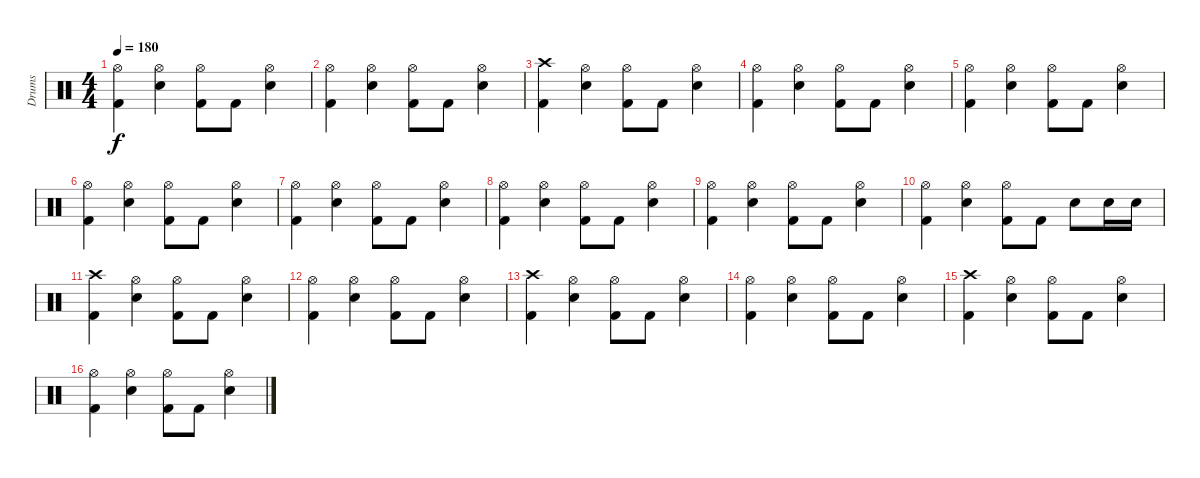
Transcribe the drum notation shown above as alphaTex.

\track ("Drums" "Drums") {instrument percussion}
\staff {score}
\articulation defaults
\ts (4 4)
\tempo 180
\clef neutral
\ks c
("Hi-Hat (open)" "Kick (hit) 2").4{dy f} ("Hi-Hat (open)" "Snare (hit) 2").4 ("Hi-Hat (open)" "Kick (hit) 2").8 "Kick (hit) 2".8 ("Hi-Hat (open)" "Snare (hit) 2").4 |
("Hi-Hat (open)" "Kick (hit) 2").4 ("Hi-Hat (open)" "Snare (hit) 2").4 ("Hi-Hat (open)" "Kick (hit) 2").8 "Kick (hit) 2".8 ("Hi-Hat (open)" "Snare (hit) 2").4 |
("Crash high (hit)" "Kick (hit) 2").4 ("Hi-Hat (open)" "Snare (hit) 2").4 ("Hi-Hat (open)" "Kick (hit) 2").8 "Kick (hit) 2".8 ("Hi-Hat (open)" "Snare (hit) 2").4 |
("Hi-Hat (open)" "Kick (hit) 2").4 ("Hi-Hat (open)" "Snare (hit) 2").4 ("Hi-Hat (open)" "Kick (hit) 2").8 "Kick (hit) 2".8 ("Hi-Hat (open)" "Snare (hit) 2").4 |
("Hi-Hat (open)" "Kick (hit) 2").4 ("Hi-Hat (open)" "Snare (hit) 2").4 ("Hi-Hat (open)" "Kick (hit) 2").8 "Kick (hit) 2".8 ("Hi-Hat (open)" "Snare (hit) 2").4 |
("Hi-Hat (open)" "Kick (hit) 2").4 ("Hi-Hat (open)" "Snare (hit) 2").4 ("Hi-Hat (open)" "Kick (hit) 2").8 "Kick (hit) 2".8 ("Hi-Hat (open)" "Snare (hit) 2").4 |
("Hi-Hat (open)" "Kick (hit) 2").4 ("Hi-Hat (open)" "Snare (hit) 2").4 ("Hi-Hat (open)" "Kick (hit) 2").8 "Kick (hit) 2".8 ("Hi-Hat (open)" "Snare (hit) 2").4 |
("Hi-Hat (open)" "Kick (hit) 2").4 ("Hi-Hat (open)" "Snare (hit) 2").4 ("Hi-Hat (open)" "Kick (hit) 2").8 "Kick (hit) 2".8 ("Hi-Hat (open)" "Snare (hit) 2").4 |
("Hi-Hat (open)" "Kick (hit) 2").4 ("Hi-Hat (open)" "Snare (hit) 2").4 ("Hi-Hat (open)" "Kick (hit) 2").8 "Kick (hit) 2".8 ("Hi-Hat (open)" "Snare (hit) 2").4 |
("Hi-Hat (open)" "Kick (hit) 2").4 ("Hi-Hat (open)" "Snare (hit) 2").4 ("Hi-Hat (open)" "Kick (hit) 2").8 "Kick (hit) 2".8 "Snare (hit) 2".8 "Snare (hit) 2".16 "Snare (hit) 2".16 |
("Crash high (hit)" "Kick (hit) 2").4 ("Hi-Hat (open)" "Snare (hit) 2").4 ("Hi-Hat (open)" "Kick (hit) 2").8 "Kick (hit) 2".8 ("Hi-Hat (open)" "Snare (hit) 2").4 |
("Hi-Hat (open)" "Kick (hit) 2").4 ("Hi-Hat (open)" "Snare (hit) 2").4 ("Hi-Hat (open)" "Kick (hit) 2").8 "Kick (hit) 2".8 ("Hi-Hat (open)" "Snare (hit) 2").4 |
("Crash high (hit)" "Kick (hit) 2").4 ("Hi-Hat (open)" "Snare (hit) 2").4 ("Hi-Hat (open)" "Kick (hit) 2").8 "Kick (hit) 2".8 ("Hi-Hat (open)" "Snare (hit) 2").4 |
("Hi-Hat (open)" "Kick (hit) 2").4 ("Hi-Hat (open)" "Snare (hit) 2").4 ("Hi-Hat (open)" "Kick (hit) 2").8 "Kick (hit) 2".8 ("Hi-Hat (open)" "Snare (hit) 2").4 |
("Crash high (hit)" "Kick (hit) 2").4 ("Hi-Hat (open)" "Snare (hit) 2").4 ("Hi-Hat (open)" "Kick (hit) 2").8 "Kick (hit) 2".8 ("Hi-Hat (open)" "Snare (hit) 2").4 |
("Hi-Hat (open)" "Kick (hit) 2").4 ("Hi-Hat (open)" "Snare (hit) 2").4 ("Hi-Hat (open)" "Kick (hit) 2").8 "Kick (hit) 2".8 ("Hi-Hat (open)" "Snare (hit) 2").4
